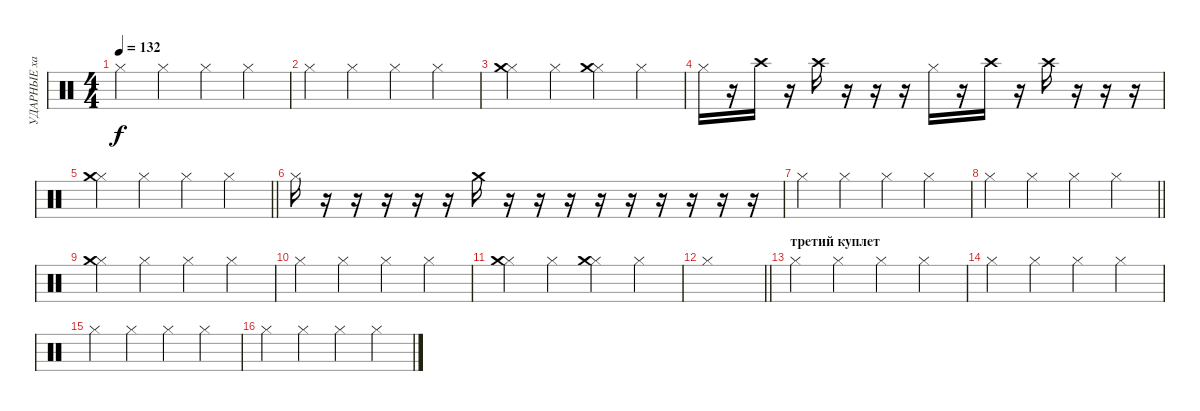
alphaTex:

\track ("УДАРНЫЕ хай хэт" "УДАРНЫЕ ха") {instrument percussion}
\staff {score}
\articulation defaults
\ts (4 4)
\tempo 132
\clef neutral
\ks c "Hi-Hat (closed)".4{dy f} "Hi-Hat (closed)".4 "Hi-Hat (closed)".4 "Hi-Hat (closed)".4
|
"Hi-Hat (closed)".4 "Hi-Hat (closed)".4 "Hi-Hat (closed)".4 "Hi-Hat (closed)".4 |
("Hi-Hat (closed)" "Crash medium (hit)").4 "Hi-Hat (closed)".4 ("Hi-Hat (closed)" "Crash medium (hit)").4 "Hi-Hat (closed)".4 |
"Hi-Hat (closed)".16 r.16 "Crash high (hit)".16 r.16 "Crash high (hit)".16 r.16 r.16 r.16 "Hi-Hat (closed)".16 r.16 "Crash high (hit)".16 r.16 "Crash high (hit)".16 r.16 r.16 r.16 |
\barLineRight lightlight
("Hi-Hat (closed)" "Crash medium (hit)").4 "Hi-Hat (closed)".4 "Hi-Hat (closed)".4 "Hi-Hat (closed)".4 |
"Hi-Hat (closed)".16 r.16 r.16 r.16 r.16 r.16 "Crash medium (hit)".16 r.16 r.16 r.16 r.16 r.16 r.16 r.16 r.16 r.16 |
"Hi-Hat (closed)".4 "Hi-Hat (closed)".4 "Hi-Hat (closed)".4 "Hi-Hat (closed)".4 |
\barLineRight lightlight "Hi-Hat (closed)".4 "Hi-Hat (closed)".4 "Hi-Hat (closed)".4 "Hi-Hat (closed)".4
|
("Hi-Hat (closed)" "Crash medium (hit)").4 "Hi-Hat (closed)".4 "Hi-Hat (closed)".4 "Hi-Hat (closed)".4 |
"Hi-Hat (closed)".4 "Hi-Hat (closed)".4 "Hi-Hat (closed)".4 "Hi-Hat (closed)".4 |
("Hi-Hat (closed)" "Crash medium (hit)").4 "Hi-Hat (closed)".4 ("Hi-Hat (closed)" "Crash medium (hit)").4 "Hi-Hat (closed)".4 |
\barLineRight lightlight "Hi-Hat (closed)".1
|
\section ("" "третий куплет ")
"Hi-Hat (closed)".4 "Hi-Hat (closed)".4 "Hi-Hat (closed)".4 "Hi-Hat (closed)".4 |
"Hi-Hat (closed)".4 "Hi-Hat (closed)".4 "Hi-Hat (closed)".4 "Hi-Hat (closed)".4 |
"Hi-Hat (closed)".4 "Hi-Hat (closed)".4 "Hi-Hat (closed)".4 "Hi-Hat (closed)".4 |
"Hi-Hat (closed)".4 "Hi-Hat (closed)".4 "Hi-Hat (closed)".4 "Hi-Hat (closed)".4
